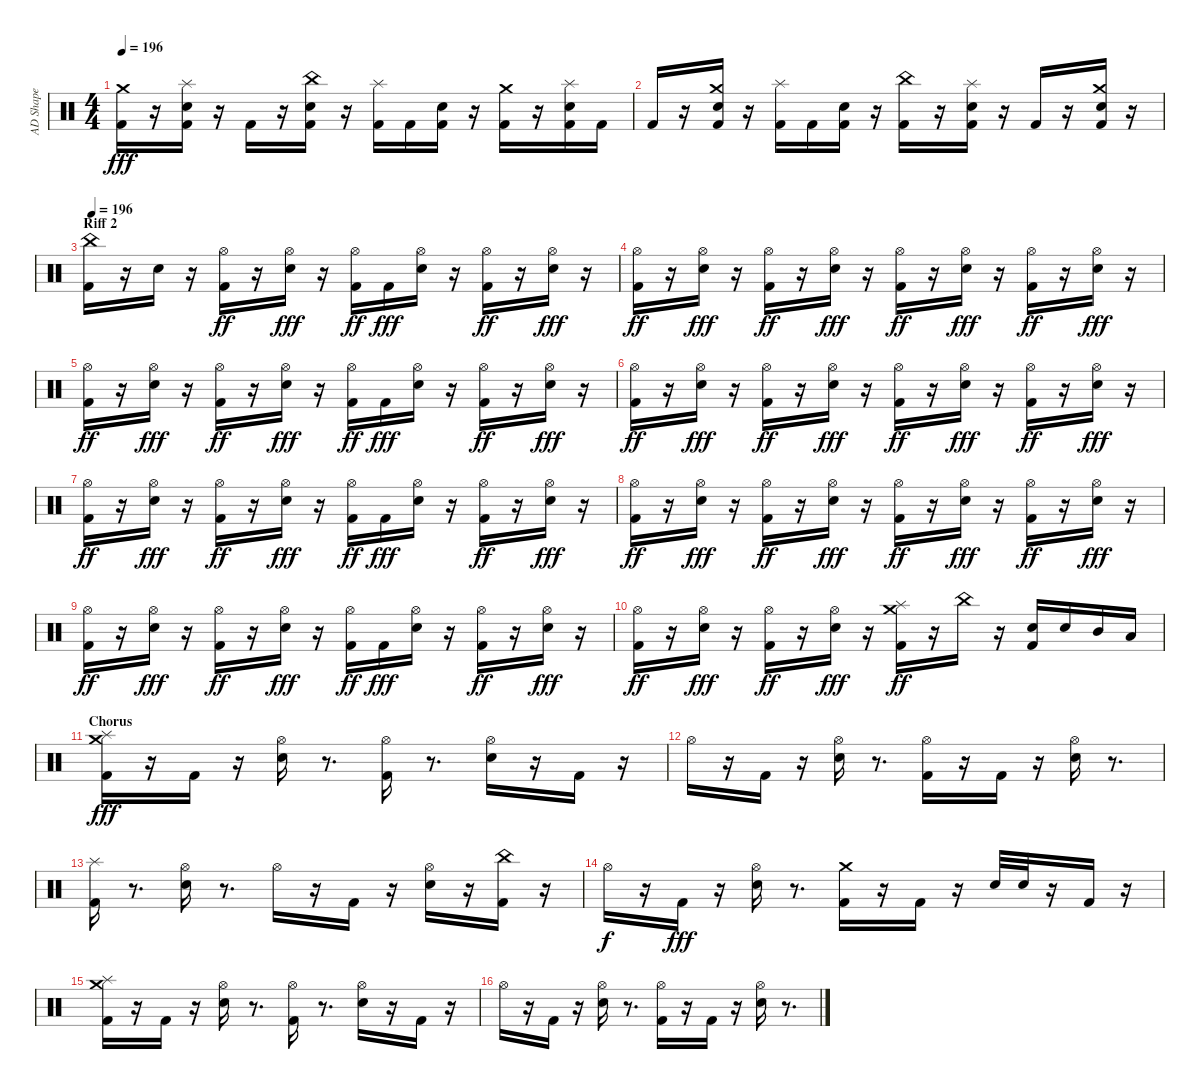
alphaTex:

\track ("AD Shape" "AD Shape") {instrument percussion}
\staff {score}
\articulation defaults
\ts (4 4)
\tempo 196
\clef neutral
\ks c
("Kick (hit) 2" "Crash medium (hit)").16{dy fff} r.16 ("Kick (hit) 2" "Snare (hit) 2" "Splash (hit)").16 r.16 "Kick (hit) 2".16 r.16 ("Kick (hit) 2" "Snare (hit) 2" "China (hit)").16 r.16 ("Kick (hit) 2" "Splash (hit)").16 "Kick (hit) 2".16 ("Kick (hit) 2" "Snare (hit) 2").16 r.16 ("Kick (hit) 2" "Crash medium (hit)").16 r.16 ("Kick (hit) 2" "Snare (hit) 2" "Splash (hit)").16 "Kick (hit) 2".16 |
"Kick (hit) 2".16 r.16 ("Kick (hit) 2" "Snare (hit) 2" "Crash medium (hit)").16 r.16 ("Kick (hit) 2" "Splash (hit)").16 "Kick (hit) 2".16 ("Kick (hit) 2" "Snare (hit) 2").16 r.16 ("Kick (hit) 2" "China (hit)").16 r.16 ("Kick (hit) 2" "Snare (hit) 2" "Splash (hit)").16 r.16 "Kick (hit) 2".16 r.16 ("Kick (hit) 2" "Snare (hit) 2" "Crash medium (hit)").16 r.16 |
\section ("" "Riff 2")
\tempo 196
("Kick (hit) 2" "China (hit)").16 r.16 "Snare (hit) 2".16 r.16 ("Kick (hit) 2" "Hi-Hat (open)").16{dy ff} r.16 ("Snare (hit) 2" "Hi-Hat (open)").16{dy fff} r.16 ("Kick (hit) 2" "Hi-Hat (open)").16{dy ff} "Kick (hit) 2".16{dy fff} ("Snare (hit) 2" "Hi-Hat (open)").16 r.16 ("Kick (hit) 2" "Hi-Hat (open)").16{dy ff} r.16 ("Snare (hit) 2" "Hi-Hat (open)").16{dy fff} r.16 |
("Kick (hit) 2" "Hi-Hat (open)").16{dy ff} r.16 ("Snare (hit) 2" "Hi-Hat (open)").16{dy fff} r.16 ("Kick (hit) 2" "Hi-Hat (open)").16{dy ff} r.16 ("Snare (hit) 2" "Hi-Hat (open)").16{dy fff} r.16 ("Kick (hit) 2" "Hi-Hat (open)").16{dy ff} r.16 ("Snare (hit) 2" "Hi-Hat (open)").16{dy fff} r.16 ("Kick (hit) 2" "Hi-Hat (open)").16{dy ff} r.16 ("Snare (hit) 2" "Hi-Hat (open)").16{dy fff} r.16 |
("Kick (hit) 2" "Hi-Hat (open)").16{dy ff} r.16 ("Snare (hit) 2" "Hi-Hat (open)").16{dy fff} r.16 ("Kick (hit) 2" "Hi-Hat (open)").16{dy ff} r.16 ("Snare (hit) 2" "Hi-Hat (open)").16{dy fff} r.16 ("Kick (hit) 2" "Hi-Hat (open)").16{dy ff} "Kick (hit) 2".16{dy fff} ("Snare (hit) 2" "Hi-Hat (open)").16 r.16 ("Kick (hit) 2" "Hi-Hat (open)").16{dy ff} r.16 ("Snare (hit) 2" "Hi-Hat (open)").16{dy fff} r.16 |
("Kick (hit) 2" "Hi-Hat (open)").16{dy ff} r.16 ("Snare (hit) 2" "Hi-Hat (open)").16{dy fff} r.16 ("Kick (hit) 2" "Hi-Hat (open)").16{dy ff} r.16 ("Snare (hit) 2" "Hi-Hat (open)").16{dy fff} r.16 ("Kick (hit) 2" "Hi-Hat (open)").16{dy ff} r.16 ("Snare (hit) 2" "Hi-Hat (open)").16{dy fff} r.16 ("Kick (hit) 2" "Hi-Hat (open)").16{dy ff} r.16 ("Snare (hit) 2" "Hi-Hat (open)").16{dy fff} r.16 |
("Kick (hit) 2" "Hi-Hat (open)").16{dy ff} r.16 ("Snare (hit) 2" "Hi-Hat (open)").16{dy fff} r.16 ("Kick (hit) 2" "Hi-Hat (open)").16{dy ff} r.16 ("Snare (hit) 2" "Hi-Hat (open)").16{dy fff} r.16 ("Kick (hit) 2" "Hi-Hat (open)").16{dy ff} "Kick (hit) 2".16{dy fff} ("Snare (hit) 2" "Hi-Hat (open)").16 r.16 ("Kick (hit) 2" "Hi-Hat (open)").16{dy ff} r.16 ("Snare (hit) 2" "Hi-Hat (open)").16{dy fff} r.16 |
("Kick (hit) 2" "Hi-Hat (open)").16{dy ff} r.16 ("Snare (hit) 2" "Hi-Hat (open)").16{dy fff} r.16 ("Kick (hit) 2" "Hi-Hat (open)").16{dy ff} r.16 ("Snare (hit) 2" "Hi-Hat (open)").16{dy fff} r.16 ("Kick (hit) 2" "Hi-Hat (open)").16{dy ff} r.16 ("Snare (hit) 2" "Hi-Hat (open)").16{dy fff} r.16 ("Kick (hit) 2" "Hi-Hat (open)").16{dy ff} r.16 ("Snare (hit) 2" "Hi-Hat (open)").16{dy fff} r.16 |
("Kick (hit) 2" "Hi-Hat (open)").16{dy ff} r.16 ("Snare (hit) 2" "Hi-Hat (open)").16{dy fff} r.16 ("Kick (hit) 2" "Hi-Hat (open)").16{dy ff} r.16 ("Snare (hit) 2" "Hi-Hat (open)").16{dy fff} r.16 ("Kick (hit) 2" "Hi-Hat (open)").16{dy ff} "Kick (hit) 2".16{dy fff} ("Snare (hit) 2" "Hi-Hat (open)").16 r.16 ("Kick (hit) 2" "Hi-Hat (open)").16{dy ff} r.16 ("Snare (hit) 2" "Hi-Hat (open)").16{dy fff} r.16 |
("Kick (hit) 2" "Hi-Hat (open)").16{dy ff} r.16 ("Snare (hit) 2" "Hi-Hat (open)").16{dy fff} r.16 ("Kick (hit) 2" "Hi-Hat (open)").16{dy ff} r.16 ("Snare (hit) 2" "Hi-Hat (open)").16{dy fff} r.16 ("Kick (hit) 2" "Splash (hit)" "Crash medium (hit)").16{dy ff} r.16 "China (hit)".16 r.16 ("Kick (hit) 2" "Snare (hit) 2").16 "Snare (hit) 2".16 "Mid Tom (hit)".16 "Low Tom (hit)".16 |
\section ("" "Chorus")
("Kick (hit) 2" "Splash (hit)" "Crash medium (hit)").16{dy fff} r.16 "Kick (hit) 2".16 r.16 ("Snare (hit) 2" "Hi-Hat (open)").16 r.8{d} ("Kick (hit) 2" "Hi-Hat (open)").16 r.8{d} ("Snare (hit) 2" "Hi-Hat (open)").16 r.16 "Kick (hit) 2".16 r.16 |
"Hi-Hat (open)".16 r.16 "Kick (hit) 2".16 r.16 ("Snare (hit) 2" "Hi-Hat (open)").16 r.8{d} ("Kick (hit) 2" "Hi-Hat (open)").16 r.16 "Kick (hit) 2".16 r.16 ("Snare (hit) 2" "Hi-Hat (open)").16 r.8{d} |
("Kick (hit) 2" "Splash (hit)").16 r.8{d} ("Snare (hit) 2" "Hi-Hat (open)").16 r.8{d} "Hi-Hat (open)".16 r.16 "Kick (hit) 2".16 r.16 ("Snare (hit) 2" "Hi-Hat (open)").16 r.16 ("Kick (hit) 2" "China (hit)").16 r.16 |
"Hi-Hat (open)".16{dy f} r.16 "Kick (hit) 2".16{dy fff} r.16 ("Snare (hit) 2" "Hi-Hat (open)").16 r.8{d} ("Kick (hit) 2" "Crash medium (hit)").16 r.16 "Kick (hit) 2".16 r.16 "Snare (hit) 2".32 "Snare (hit) 2".32 r.16 "Kick (hit) 2".16 r.16 |
("Kick (hit) 2" "Splash (hit)" "Crash medium (hit)").16 r.16 "Kick (hit) 2".16 r.16 ("Snare (hit) 2" "Hi-Hat (open)").16 r.8{d} ("Kick (hit) 2" "Hi-Hat (open)").16 r.8{d} ("Snare (hit) 2" "Hi-Hat (open)").16 r.16 "Kick (hit) 2".16 r.16 |
"Hi-Hat (open)".16 r.16 "Kick (hit) 2".16 r.16 ("Snare (hit) 2" "Hi-Hat (open)").16 r.8{d} ("Kick (hit) 2" "Hi-Hat (open)").16 r.16 "Kick (hit) 2".16 r.16 ("Snare (hit) 2" "Hi-Hat (open)").16 r.8{d}
